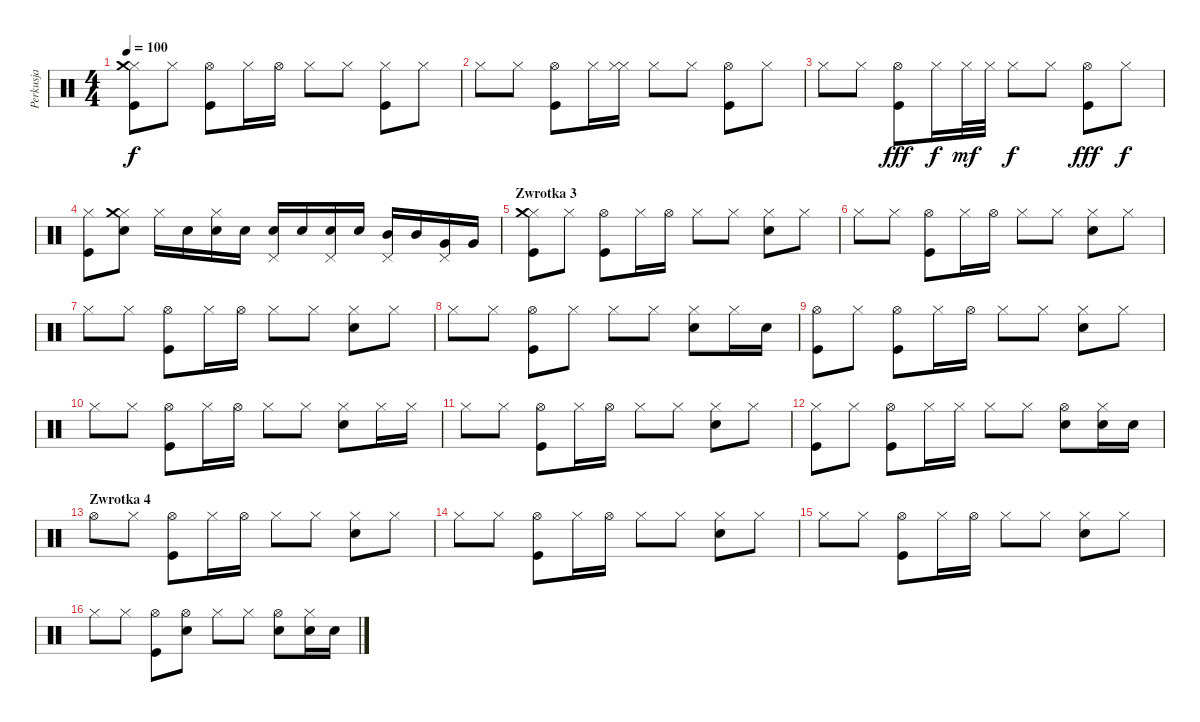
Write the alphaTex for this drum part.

\track ("Perkusja" "Perkusja") {instrument percussion}
\staff {score}
\articulation defaults
\ts (4 4)
\tempo 100
\clef neutral
\ks c
("Kick (hit)" "Hi-Hat (closed)" "Crash medium (hit)").8{dy f} "Hi-Hat (closed)".8 ("Kick (hit)" "Hi-Hat (open)").8 "Hi-Hat (closed)".16 "Hi-Hat (open)".16 "Hi-Hat (closed)".8 "Hi-Hat (closed)".8 ("Kick (hit)" "Hi-Hat (closed)").8 "Hi-Hat (closed)".8 |
"Hi-Hat (closed)".8 "Hi-Hat (closed)".8 ("Kick (hit)" "Hi-Hat (open)").8 "Hi-Hat (closed)".16 ("Hi-Hat (closed)" "Hi-Hat (closed)").16 "Hi-Hat (closed)".8 "Hi-Hat (closed)".8 ("Kick (hit)" "Hi-Hat (open)").8 "Hi-Hat (closed)".8 |
"Hi-Hat (closed)".8 "Hi-Hat (closed)".8 ("Kick (hit)" "Hi-Hat (open)").8{dy fff} "Hi-Hat (closed)".16{dy f} "Hi-Hat (closed)".32{dy mf} "Hi-Hat (closed)".32 "Hi-Hat (closed)".8{dy f} "Hi-Hat (closed)".8 ("Kick (hit)" "Hi-Hat (open)").8{dy fff} "Hi-Hat (closed)".8{dy f} |
("Kick (hit)" "Hi-Hat (closed)").8 ("Electric Snare (hit)" "Hi-Hat (closed)" "Crash medium (hit)").8 "Hi-Hat (closed)".16 "Electric Snare (hit)".16 ("Electric Snare (hit)" "Hi-Hat (closed)").16 "Electric Snare (hit)".16 ("Electric Snare (hit)" "Pedal Hi-Hat (hit)").16 "Electric Snare (hit)".16 ("Electric Snare (hit)" "Pedal Hi-Hat (hit)").16 "Electric Snare (hit)".16 ("Pedal Hi-Hat (hit)" "Mid Tom (hit)").16 "Mid Tom (hit)".16 ("Very Low Tom (hit)" "Pedal Hi-Hat (hit)").16 "Very Low Tom (hit)".16 |
\section ("" "Zwrotka 3")
("Kick (hit)" "Hi-Hat (closed)" "Crash medium (hit)").8 "Hi-Hat (closed)".8 ("Kick (hit)" "Hi-Hat (open)").8 "Hi-Hat (closed)".16 "Hi-Hat (open)".16 "Hi-Hat (closed)".8 "Hi-Hat (closed)".8 ("Electric Snare (hit)" "Hi-Hat (closed)").8 "Hi-Hat (closed)".8 |
"Hi-Hat (closed)".8 "Hi-Hat (closed)".8 ("Kick (hit)" "Hi-Hat (open)").8 "Hi-Hat (closed)".16 "Hi-Hat (open)".16 "Hi-Hat (closed)".8 "Hi-Hat (closed)".8 ("Electric Snare (hit)" "Hi-Hat (closed)").8 "Hi-Hat (closed)".8 |
"Hi-Hat (closed)".8 "Hi-Hat (closed)".8 ("Kick (hit)" "Hi-Hat (open)").8 "Hi-Hat (closed)".16 "Hi-Hat (open)".16 "Hi-Hat (closed)".8 "Hi-Hat (closed)".8 ("Electric Snare (hit)" "Hi-Hat (closed)").8 "Hi-Hat (closed)".8 |
"Hi-Hat (closed)".8 "Hi-Hat (closed)".8 ("Kick (hit)" "Hi-Hat (open)").8 "Hi-Hat (closed)".8 "Hi-Hat (closed)".8 "Hi-Hat (closed)".8 ("Electric Snare (hit)" "Hi-Hat (closed)").8 "Hi-Hat (closed)".16 "Electric Snare (hit)".16 |
("Kick (hit)" "Hi-Hat (open)").8 "Hi-Hat (closed)".8 ("Kick (hit)" "Hi-Hat (open)").8 "Hi-Hat (closed)".16 "Hi-Hat (open)".16 "Hi-Hat (closed)".8 "Hi-Hat (closed)".8 ("Electric Snare (hit)" "Hi-Hat (closed)").8 "Hi-Hat (closed)".8 |
"Hi-Hat (closed)".8 "Hi-Hat (closed)".8 ("Kick (hit)" "Hi-Hat (open)").8 "Hi-Hat (closed)".16 "Hi-Hat (open)".16 "Hi-Hat (closed)".8 "Hi-Hat (closed)".8 ("Electric Snare (hit)" "Hi-Hat (closed)").8 "Hi-Hat (closed)".16 "Hi-Hat (closed)".16 |
"Hi-Hat (closed)".8 "Hi-Hat (closed)".8 ("Kick (hit)" "Hi-Hat (open)").8 "Hi-Hat (closed)".16 "Hi-Hat (open)".16 "Hi-Hat (closed)".8 "Hi-Hat (closed)".8 ("Electric Snare (hit)" "Hi-Hat (closed)").8 "Hi-Hat (closed)".8 |
("Kick (hit)" "Hi-Hat (closed)").8 "Hi-Hat (closed)".8 ("Kick (hit)" "Hi-Hat (open)").8 "Hi-Hat (closed)".16 "Hi-Hat (closed)".16 "Hi-Hat (closed)".8 "Hi-Hat (closed)".8 ("Electric Snare (hit)" "Hi-Hat (open)").8 ("Electric Snare (hit)" "Hi-Hat (closed)").16 "Electric Snare (hit)".16 |
\section ("" "Zwrotka 4")
"Hi-Hat (open)".8 "Hi-Hat (closed)".8 ("Kick (hit)" "Hi-Hat (open)").8 "Hi-Hat (closed)".16 "Hi-Hat (open)".16 "Hi-Hat (closed)".8 "Hi-Hat (closed)".8 ("Electric Snare (hit)" "Hi-Hat (closed)").8 "Hi-Hat (closed)".8 |
"Hi-Hat (closed)".8 "Hi-Hat (closed)".8 ("Kick (hit)" "Hi-Hat (open)").8 "Hi-Hat (closed)".16 "Hi-Hat (open)".16 "Hi-Hat (closed)".8 "Hi-Hat (closed)".8 ("Electric Snare (hit)" "Hi-Hat (closed)").8 "Hi-Hat (closed)".8 |
"Hi-Hat (closed)".8 "Hi-Hat (closed)".8 ("Kick (hit)" "Hi-Hat (open)").8 "Hi-Hat (closed)".16 "Hi-Hat (open)".16 "Hi-Hat (closed)".8 "Hi-Hat (closed)".8 ("Electric Snare (hit)" "Hi-Hat (closed)").8 "Hi-Hat (closed)".8 |
"Hi-Hat (closed)".8 "Hi-Hat (closed)".8 ("Kick (hit)" "Hi-Hat (open)").8 ("Electric Snare (hit)" "Hi-Hat (open)").8 "Hi-Hat (closed)".8 "Hi-Hat (closed)".8 ("Electric Snare (hit)" "Hi-Hat (open)").8 ("Electric Snare (hit)" "Hi-Hat (closed)").16 "Electric Snare (hit)".16
